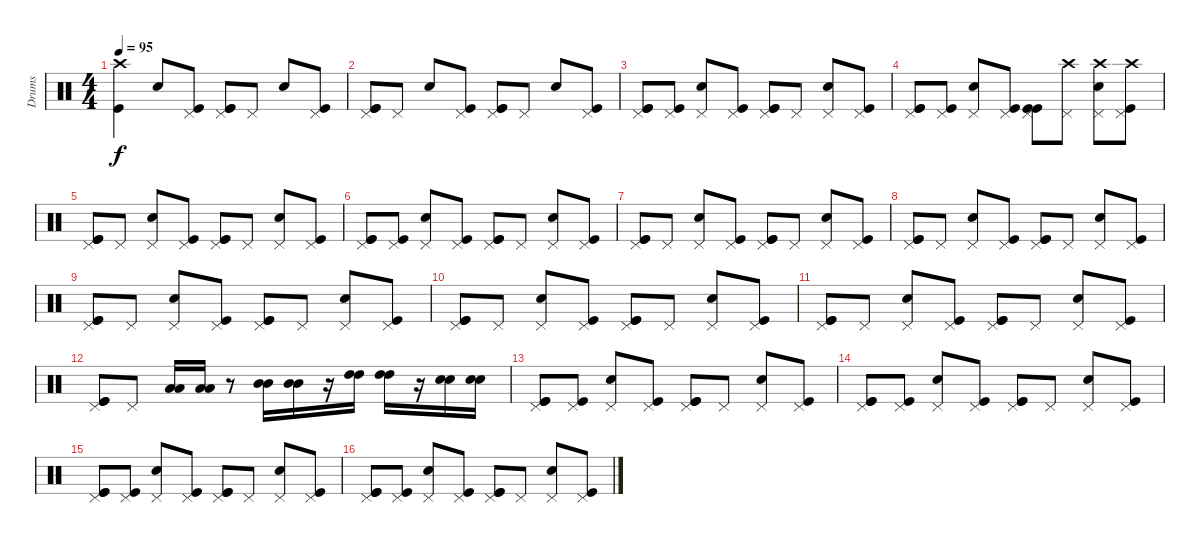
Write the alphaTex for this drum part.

\track ("Drums" "Drums") {instrument percussion}
\staff {score}
\articulation defaults
\ts (4 4)
\tempo 95
\clef neutral
\ks c
("Kick (hit)" "Crash high (hit)").4{dy f} "Snare (hit) 2".8 ("Pedal Hi-Hat (hit)" "Kick (hit)").8 ("Pedal Hi-Hat (hit)" "Kick (hit)" "Kick (hit)").8 "Pedal Hi-Hat (hit)".8 "Snare (hit) 2".8 ("Pedal Hi-Hat (hit)" "Kick (hit)").8 |
("Pedal Hi-Hat (hit)" "Kick (hit)" "Kick (hit)").8 "Pedal Hi-Hat (hit)".8 "Snare (hit) 2".8 ("Pedal Hi-Hat (hit)" "Kick (hit)").8 ("Pedal Hi-Hat (hit)" "Kick (hit)" "Kick (hit)").8 "Pedal Hi-Hat (hit)".8 "Snare (hit) 2".8 ("Pedal Hi-Hat (hit)" "Kick (hit)").8 |
("Pedal Hi-Hat (hit)" "Kick (hit)" "Kick (hit)").8 ("Pedal Hi-Hat (hit)" "Kick (hit)").8 ("Pedal Hi-Hat (hit)" "Snare (hit) 2").8 ("Pedal Hi-Hat (hit)" "Kick (hit)").8 ("Pedal Hi-Hat (hit)" "Kick (hit)" "Kick (hit)").8 "Pedal Hi-Hat (hit)".8 ("Pedal Hi-Hat (hit)" "Snare (hit) 2").8 ("Pedal Hi-Hat (hit)" "Kick (hit)").8 |
("Pedal Hi-Hat (hit)" "Kick (hit)" "Kick (hit)").8 ("Pedal Hi-Hat (hit)" "Kick (hit)").8 ("Pedal Hi-Hat (hit)" "Snare (hit) 2").8 ("Pedal Hi-Hat (hit)" "Kick (hit)").8 ("Pedal Hi-Hat (hit)" "Kick (hit)" "Kick (hit)").8 ("Crash high (hit)" "Pedal Hi-Hat (hit)").8 ("Crash high (hit)" "Pedal Hi-Hat (hit)" "Snare (hit) 2").8 ("Crash high (hit)" "Pedal Hi-Hat (hit)" "Kick (hit)").8 |
("Pedal Hi-Hat (hit)" "Kick (hit)" "Kick (hit)").8 "Pedal Hi-Hat (hit)".8 ("Pedal Hi-Hat (hit)" "Snare (hit) 2").8 ("Pedal Hi-Hat (hit)" "Kick (hit)").8 ("Pedal Hi-Hat (hit)" "Kick (hit)" "Kick (hit)").8 "Pedal Hi-Hat (hit)".8 ("Pedal Hi-Hat (hit)" "Snare (hit) 2").8 ("Pedal Hi-Hat (hit)" "Kick (hit)").8 |
("Pedal Hi-Hat (hit)" "Kick (hit)" "Kick (hit)").8 ("Pedal Hi-Hat (hit)" "Kick (hit)").8 ("Pedal Hi-Hat (hit)" "Snare (hit) 2").8 ("Pedal Hi-Hat (hit)" "Kick (hit)").8 ("Pedal Hi-Hat (hit)" "Kick (hit)" "Kick (hit)").8 "Pedal Hi-Hat (hit)".8 ("Pedal Hi-Hat (hit)" "Snare (hit) 2").8 ("Pedal Hi-Hat (hit)" "Kick (hit)").8 |
("Pedal Hi-Hat (hit)" "Kick (hit)" "Kick (hit)").8 "Pedal Hi-Hat (hit)".8 ("Pedal Hi-Hat (hit)" "Snare (hit) 2").8 ("Pedal Hi-Hat (hit)" "Kick (hit)").8 ("Pedal Hi-Hat (hit)" "Kick (hit)" "Kick (hit)").8 "Pedal Hi-Hat (hit)".8 ("Pedal Hi-Hat (hit)" "Snare (hit) 2").8 ("Pedal Hi-Hat (hit)" "Kick (hit)").8 |
("Pedal Hi-Hat (hit)" "Kick (hit)" "Kick (hit)").8 "Pedal Hi-Hat (hit)".8 ("Pedal Hi-Hat (hit)" "Snare (hit) 2").8 ("Pedal Hi-Hat (hit)" "Kick (hit)").8 ("Pedal Hi-Hat (hit)" "Kick (hit)" "Kick (hit)").8 "Pedal Hi-Hat (hit)".8 ("Pedal Hi-Hat (hit)" "Snare (hit) 2").8 ("Pedal Hi-Hat (hit)" "Kick (hit)").8 |
("Pedal Hi-Hat (hit)" "Kick (hit)" "Kick (hit)").8 "Pedal Hi-Hat (hit)".8 ("Pedal Hi-Hat (hit)" "Snare (hit) 2").8 ("Pedal Hi-Hat (hit)" "Kick (hit)").8 ("Pedal Hi-Hat (hit)" "Kick (hit)" "Kick (hit)").8 "Pedal Hi-Hat (hit)".8 ("Pedal Hi-Hat (hit)" "Snare (hit) 2").8 ("Pedal Hi-Hat (hit)" "Kick (hit)").8 |
("Pedal Hi-Hat (hit)" "Kick (hit)" "Kick (hit)").8 "Pedal Hi-Hat (hit)".8 ("Pedal Hi-Hat (hit)" "Snare (hit) 2").8 ("Pedal Hi-Hat (hit)" "Kick (hit)").8 ("Pedal Hi-Hat (hit)" "Kick (hit)" "Kick (hit)").8 "Pedal Hi-Hat (hit)".8 ("Pedal Hi-Hat (hit)" "Snare (hit) 2").8 ("Pedal Hi-Hat (hit)" "Kick (hit)").8 |
("Pedal Hi-Hat (hit)" "Kick (hit)" "Kick (hit)").8 "Pedal Hi-Hat (hit)".8 ("Pedal Hi-Hat (hit)" "Snare (hit) 2").8 ("Pedal Hi-Hat (hit)" "Kick (hit)").8 ("Pedal Hi-Hat (hit)" "Kick (hit)" "Kick (hit)").8 "Pedal Hi-Hat (hit)".8 ("Pedal Hi-Hat (hit)" "Snare (hit) 2").8 ("Pedal Hi-Hat (hit)" "Kick (hit)").8 |
("Pedal Hi-Hat (hit)" "Kick (hit)" "Kick (hit)").8 "Pedal Hi-Hat (hit)".8 ("Low Tom (hit)" "Low Tom (hit)").16 ("Low Tom (hit)" "Low Tom (hit)").16 r.8 ("Mid Tom (hit)" "Mid Tom (hit)").16 ("Mid Tom (hit)" "Mid Tom (hit)").16 r.16 ("High Tom (hit)" "High Tom (hit)").16 ("High Tom (hit)" "High Tom (hit)").16 r.16 ("Electric Snare (hit)" "Electric Snare (hit)").16 ("Electric Snare (hit)" "Electric Snare (hit)").16 |
("Pedal Hi-Hat (hit)" "Kick (hit)" "Kick (hit)").8 ("Pedal Hi-Hat (hit)" "Kick (hit)").8 ("Pedal Hi-Hat (hit)" "Snare (hit) 2").8 ("Pedal Hi-Hat (hit)" "Kick (hit)").8 ("Pedal Hi-Hat (hit)" "Kick (hit)" "Kick (hit)").8 "Pedal Hi-Hat (hit)".8 ("Pedal Hi-Hat (hit)" "Snare (hit) 2").8 ("Pedal Hi-Hat (hit)" "Kick (hit)").8 |
("Pedal Hi-Hat (hit)" "Kick (hit)" "Kick (hit)").8 ("Pedal Hi-Hat (hit)" "Kick (hit)").8 ("Pedal Hi-Hat (hit)" "Snare (hit) 2").8 ("Pedal Hi-Hat (hit)" "Kick (hit)").8 ("Pedal Hi-Hat (hit)" "Kick (hit)" "Kick (hit)").8 "Pedal Hi-Hat (hit)".8 ("Pedal Hi-Hat (hit)" "Snare (hit) 2").8 ("Pedal Hi-Hat (hit)" "Kick (hit)").8 |
("Pedal Hi-Hat (hit)" "Kick (hit)" "Kick (hit)").8 ("Pedal Hi-Hat (hit)" "Kick (hit)").8 ("Pedal Hi-Hat (hit)" "Snare (hit) 2").8 ("Pedal Hi-Hat (hit)" "Kick (hit)").8 ("Pedal Hi-Hat (hit)" "Kick (hit)" "Kick (hit)").8 "Pedal Hi-Hat (hit)".8 ("Pedal Hi-Hat (hit)" "Snare (hit) 2").8 ("Pedal Hi-Hat (hit)" "Kick (hit)").8 |
("Pedal Hi-Hat (hit)" "Kick (hit)" "Kick (hit)").8 ("Pedal Hi-Hat (hit)" "Kick (hit)").8 ("Pedal Hi-Hat (hit)" "Snare (hit) 2").8 ("Pedal Hi-Hat (hit)" "Kick (hit)").8 ("Pedal Hi-Hat (hit)" "Kick (hit)" "Kick (hit)").8 "Pedal Hi-Hat (hit)".8 ("Pedal Hi-Hat (hit)" "Snare (hit) 2").8 ("Pedal Hi-Hat (hit)" "Kick (hit)").8
